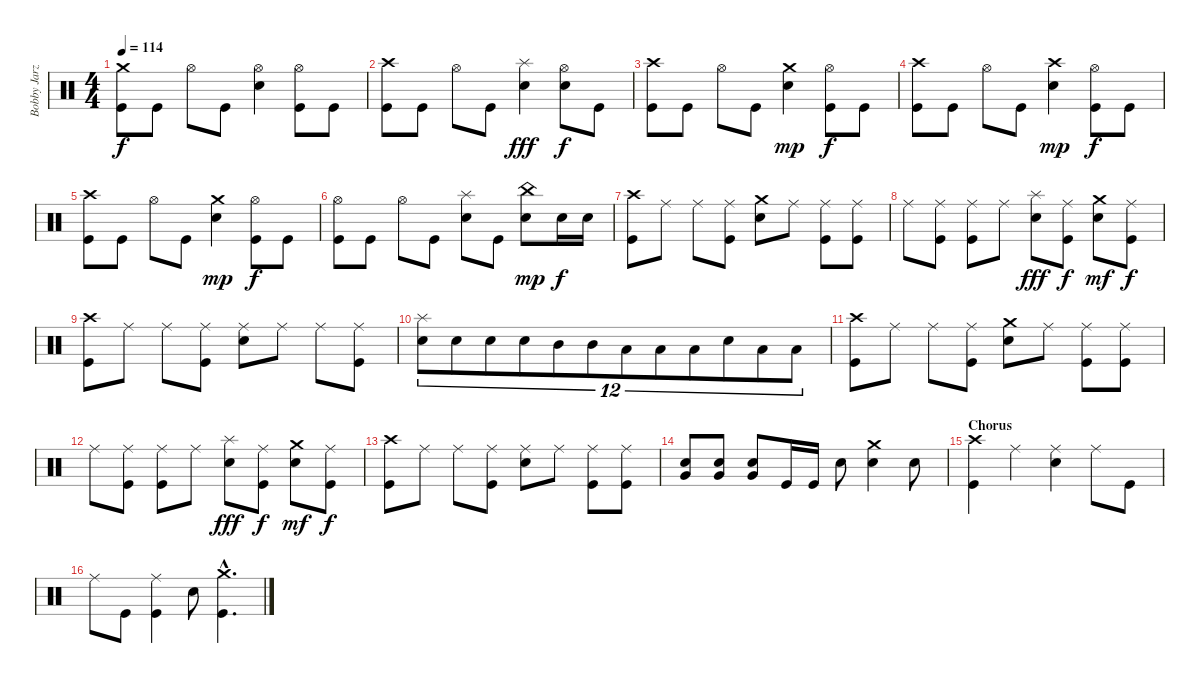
\track ("Bobby Jarzombek" "Bobby Jarz") {instrument percussion}
\staff {score}
\articulation defaults
\ts (4 4)
\tempo 114
\clef neutral
\ks c
("Crash medium (hit)" "Kick (hit)").8{dy f} "Kick (hit)".8 "Hi-Hat (open)".8 "Kick (hit)".8 ("Hi-Hat (open)" "Electric Snare (hit)").4 ("Hi-Hat (open)" "Kick (hit)").8 "Kick (hit)".8 |
("Crash high (hit)" "Kick (hit)").8 "Kick (hit)".8 "Hi-Hat (open)".8 "Kick (hit)".8 ("Splash (hit)" "Electric Snare (hit)").4{dy fff} ("Hi-Hat (open)" "Electric Snare (hit)").8{dy f} "Kick (hit)".8 |
("Crash high (hit)" "Kick (hit)").8 "Kick (hit)".8 "Hi-Hat (open)".8 "Kick (hit)".8 ("Crash medium (hit)" "Electric Snare (hit)").4{dy mp} ("Hi-Hat (open)" "Kick (hit)").8{dy f} "Kick (hit)".8 |
("Crash high (hit)" "Kick (hit)").8 "Kick (hit)".8 "Hi-Hat (open)".8 "Kick (hit)".8 ("Crash high (hit)" "Electric Snare (hit)").4{dy mp} ("Hi-Hat (open)" "Kick (hit)").8{dy f} "Kick (hit)".8 |
("Crash high (hit)" "Kick (hit)").8 "Kick (hit)".8 "Hi-Hat (open)".8 "Kick (hit)".8 ("Crash medium (hit)" "Electric Snare (hit)").4{dy mp} ("Hi-Hat (open)" "Kick (hit)").8{dy f} "Kick (hit)".8 |
("Hi-Hat (open)" "Kick (hit)").8 "Kick (hit)".8 "Hi-Hat (open)".8 "Kick (hit)".8 ("Splash (hit)" "Electric Snare (hit)").8 "Kick (hit)".8 ("China (hit)" "Electric Snare (hit)").8{dy mp} "Electric Snare (hit)".16{dy f} "Electric Snare (hit)".16 |
("Crash high (hit)" "Kick (hit)").8 "Ride (middle)".8 "Ride (middle)".8 ("Ride (middle)" "Kick (hit)").8 ("Crash medium (hit)" "Electric Snare (hit)").8 "Ride (middle)".8 ("Ride (middle)" "Kick (hit)").8 ("Ride (middle)" "Kick (hit)").8 |
"Ride (middle)".8 ("Ride (middle)" "Kick (hit)").8 ("Ride (middle)" "Kick (hit)").8 "Ride (middle)".8 ("Splash (hit)" "Electric Snare (hit)").8{dy fff} ("Ride (middle)" "Kick (hit)").8{dy f} ("Crash medium (hit)" "Electric Snare (hit)").8{dy mf} ("Ride (middle)" "Kick (hit)").8{dy f} |
("Crash high (hit)" "Kick (hit)").8 "Ride (middle)".8 "Ride (middle)".8 ("Ride (middle)" "Kick (hit)").8 ("Ride (middle)" "Electric Snare (hit)").8 "Ride (middle)".8 "Ride (middle)".8 ("Ride (middle)" "Kick (hit)").8 |
("Splash (hit)" "Electric Snare (hit)").8{tu (12 8)} "Electric Snare (hit)".8{tu (12 8)} "Electric Snare (hit)".8{tu (12 8)} "Electric Snare (hit)".8{tu (12 8)} "Mid Tom (hit)".8{tu (12 8)} "Mid Tom (hit)".8{tu (12 8)} "Low Tom (hit)".8{tu (12 8)} "Low Tom (hit)".8{tu (12 8)} "Low Tom (hit)".8{tu (12 8)} "Electric Snare (hit)".8{tu (12 8)} "Low Tom (hit)".8{tu (12 8)} "Low Tom (hit)".8{tu (12 8)} |
("Crash high (hit)" "Kick (hit)").8 "Ride (middle)".8 "Ride (middle)".8 ("Ride (middle)" "Kick (hit)").8 ("Crash medium (hit)" "Electric Snare (hit)").8 "Ride (middle)".8 ("Ride (middle)" "Kick (hit)").8 ("Ride (middle)" "Kick (hit)").8 |
"Ride (middle)".8 ("Ride (middle)" "Kick (hit)").8 ("Ride (middle)" "Kick (hit)").8 "Ride (middle)".8 ("Splash (hit)" "Electric Snare (hit)").8{dy fff} ("Ride (middle)" "Kick (hit)").8{dy f} ("Crash medium (hit)" "Electric Snare (hit)").8{dy mf} ("Ride (middle)" "Kick (hit)").8{dy f} |
("Crash high (hit)" "Kick (hit)").8 "Ride (middle)".8 "Ride (middle)".8 ("Ride (middle)" "Kick (hit)").8 ("Ride (middle)" "Electric Snare (hit)").8 "Ride (middle)".8 ("Ride (middle)" "Kick (hit)").8 ("Ride (middle)" "Kick (hit)").8 |
("Very Low Tom (hit)" "Electric Snare (hit)").8 ("Very Low Tom (hit)" "Electric Snare (hit)").8 ("Very Low Tom (hit)" "Electric Snare (hit)").8 "Kick (hit)".16 "Kick (hit)".16 "Electric Snare (hit)".8 ("Crash medium (hit)" "Electric Snare (hit)").4 "Electric Snare (hit)".8 |
\section ("" "Chorus")
("Crash high (hit)" "Kick (hit)").4 "Ride (middle)".4 ("Ride (middle)" "Electric Snare (hit)").4 "Ride (middle)".8 "Kick (hit)".8 |
"Ride (middle)".8 "Kick (hit)".8 ("Ride (middle)" "Kick (hit)").4 "Electric Snare (hit)".8 ("Crash medium (hit)"{hac} "Kick (hit)"{hac}).4{d}
